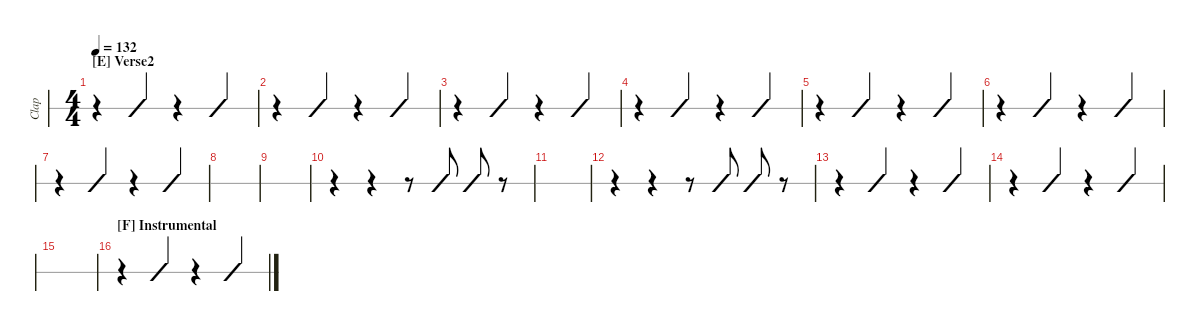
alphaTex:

\defaultSystemsLayout 4
\hideDynamics
\bracketExtendMode nobrackets
\otherSystemsTrackNameOrientation horizontal
\track ("Hand Clap" "Clap") {instrument percussion}
\staff {slash}
\articulation defaults
\ts (4 4)
\section ("E" "Verse2")
\tempo 132
\clef neutral
\ks eb
r.4{dy mf} "Kick (hit)".4 r.4 "Kick (hit)".4 |
r.4 "Kick (hit)".4 r.4 "Kick (hit)".4 |
r.4 "Kick (hit)".4 r.4 "Kick (hit)".4 |
r.4 "Kick (hit)".4 r.4 "Kick (hit)".4 |
r.4 "Kick (hit)".4 r.4 "Kick (hit)".4 |
r.4 "Kick (hit)".4 r.4 "Kick (hit)".4 |
r.4 "Kick (hit)".4 r.4 "Kick (hit)".4 |
|
|
r.4 r.4 r.8 "Kick (hit)".8 "Kick (hit)".8 r.8 |
|
r.4 r.4 r.8 "Kick (hit)".8 "Kick (hit)".8 r.8 |
r.4 "Kick (hit)".4 r.4 "Kick (hit)".4 |
r.4 "Kick (hit)".4 r.4 "Kick (hit)".4 |
|
\section ("F" "Instrumental")
r.4 "Kick (hit)".4 r.4 "Kick (hit)".4
